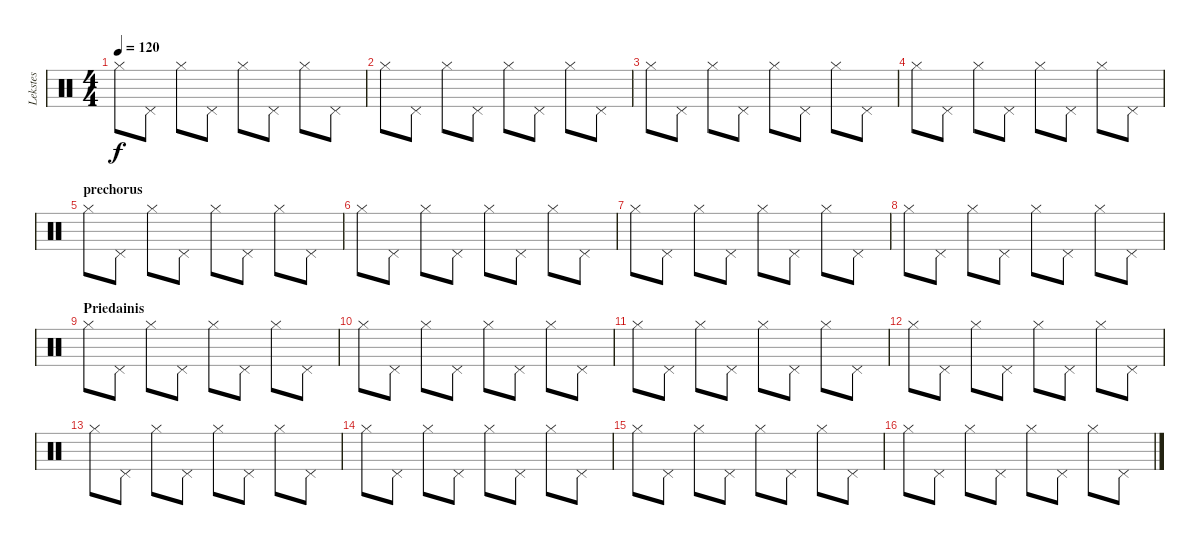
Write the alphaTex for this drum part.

\track ("Lekstes" "Lekstes") {instrument percussion}
\staff {score}
\articulation defaults
\ts (4 4)
\tempo 120
\clef neutral
\ks c "Hi-Hat (closed)".8{dy f} "Pedal Hi-Hat (hit)".8 "Hi-Hat (closed)".8 "Pedal Hi-Hat (hit)".8 "Hi-Hat (closed)".8 "Pedal Hi-Hat (hit)".8 "Hi-Hat (closed)".8 "Pedal Hi-Hat (hit)".8
|
"Hi-Hat (closed)".8 "Pedal Hi-Hat (hit)".8 "Hi-Hat (closed)".8 "Pedal Hi-Hat (hit)".8 "Hi-Hat (closed)".8 "Pedal Hi-Hat (hit)".8 "Hi-Hat (closed)".8 "Pedal Hi-Hat (hit)".8 |
"Hi-Hat (closed)".8 "Pedal Hi-Hat (hit)".8 "Hi-Hat (closed)".8 "Pedal Hi-Hat (hit)".8 "Hi-Hat (closed)".8 "Pedal Hi-Hat (hit)".8 "Hi-Hat (closed)".8 "Pedal Hi-Hat (hit)".8 |
"Hi-Hat (closed)".8 "Pedal Hi-Hat (hit)".8 "Hi-Hat (closed)".8 "Pedal Hi-Hat (hit)".8 "Hi-Hat (closed)".8 "Pedal Hi-Hat (hit)".8 "Hi-Hat (closed)".8 "Pedal Hi-Hat (hit)".8 |
\section ("" "prechorus")
"Hi-Hat (closed)".8 "Pedal Hi-Hat (hit)".8 "Hi-Hat (closed)".8 "Pedal Hi-Hat (hit)".8 "Hi-Hat (closed)".8 "Pedal Hi-Hat (hit)".8 "Hi-Hat (closed)".8 "Pedal Hi-Hat (hit)".8 |
"Hi-Hat (closed)".8 "Pedal Hi-Hat (hit)".8 "Hi-Hat (closed)".8 "Pedal Hi-Hat (hit)".8 "Hi-Hat (closed)".8 "Pedal Hi-Hat (hit)".8 "Hi-Hat (closed)".8 "Pedal Hi-Hat (hit)".8 |
"Hi-Hat (closed)".8 "Pedal Hi-Hat (hit)".8 "Hi-Hat (closed)".8 "Pedal Hi-Hat (hit)".8 "Hi-Hat (closed)".8 "Pedal Hi-Hat (hit)".8 "Hi-Hat (closed)".8 "Pedal Hi-Hat (hit)".8 |
"Hi-Hat (closed)".8 "Pedal Hi-Hat (hit)".8 "Hi-Hat (closed)".8 "Pedal Hi-Hat (hit)".8 "Hi-Hat (closed)".8 "Pedal Hi-Hat (hit)".8 "Hi-Hat (closed)".8 "Pedal Hi-Hat (hit)".8 |
\section ("" "Priedainis")
"Hi-Hat (closed)".8 "Pedal Hi-Hat (hit)".8 "Hi-Hat (closed)".8 "Pedal Hi-Hat (hit)".8 "Hi-Hat (closed)".8 "Pedal Hi-Hat (hit)".8 "Hi-Hat (closed)".8 "Pedal Hi-Hat (hit)".8 |
"Hi-Hat (closed)".8 "Pedal Hi-Hat (hit)".8 "Hi-Hat (closed)".8 "Pedal Hi-Hat (hit)".8 "Hi-Hat (closed)".8 "Pedal Hi-Hat (hit)".8 "Hi-Hat (closed)".8 "Pedal Hi-Hat (hit)".8 |
"Hi-Hat (closed)".8 "Pedal Hi-Hat (hit)".8 "Hi-Hat (closed)".8 "Pedal Hi-Hat (hit)".8 "Hi-Hat (closed)".8 "Pedal Hi-Hat (hit)".8 "Hi-Hat (closed)".8 "Pedal Hi-Hat (hit)".8 |
"Hi-Hat (closed)".8 "Pedal Hi-Hat (hit)".8 "Hi-Hat (closed)".8 "Pedal Hi-Hat (hit)".8 "Hi-Hat (closed)".8 "Pedal Hi-Hat (hit)".8 "Hi-Hat (closed)".8 "Pedal Hi-Hat (hit)".8 |
"Hi-Hat (closed)".8 "Pedal Hi-Hat (hit)".8 "Hi-Hat (closed)".8 "Pedal Hi-Hat (hit)".8 "Hi-Hat (closed)".8 "Pedal Hi-Hat (hit)".8 "Hi-Hat (closed)".8 "Pedal Hi-Hat (hit)".8 |
"Hi-Hat (closed)".8 "Pedal Hi-Hat (hit)".8 "Hi-Hat (closed)".8 "Pedal Hi-Hat (hit)".8 "Hi-Hat (closed)".8 "Pedal Hi-Hat (hit)".8 "Hi-Hat (closed)".8 "Pedal Hi-Hat (hit)".8 |
"Hi-Hat (closed)".8 "Pedal Hi-Hat (hit)".8 "Hi-Hat (closed)".8 "Pedal Hi-Hat (hit)".8 "Hi-Hat (closed)".8 "Pedal Hi-Hat (hit)".8 "Hi-Hat (closed)".8 "Pedal Hi-Hat (hit)".8 |
"Hi-Hat (closed)".8 "Pedal Hi-Hat (hit)".8 "Hi-Hat (closed)".8 "Pedal Hi-Hat (hit)".8 "Hi-Hat (closed)".8 "Pedal Hi-Hat (hit)".8 "Hi-Hat (closed)".8 "Pedal Hi-Hat (hit)".8
